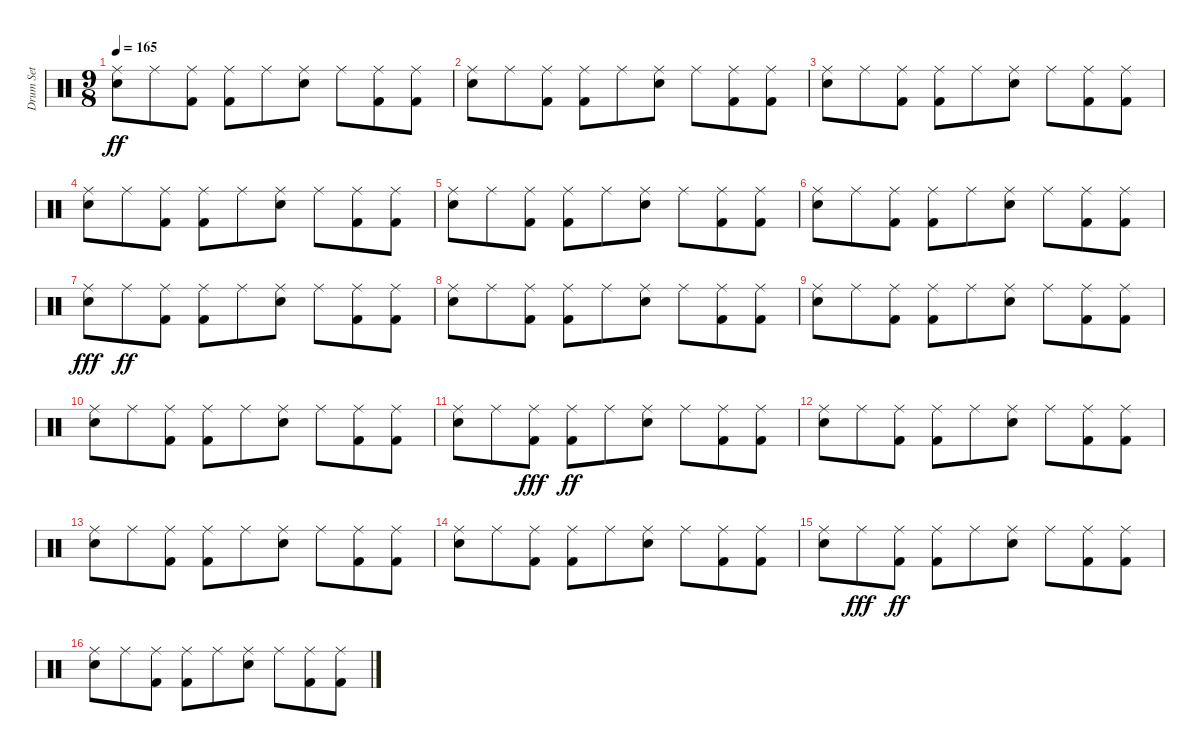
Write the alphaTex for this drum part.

\track ("Drum Set" "Drum Set") {instrument percussion}
\staff {score}
\articulation defaults
\ts (9 8)
\tempo 165
\clef neutral
\ks c
("Snare (hit) 2" "Ride (middle)").8{dy ff} "Ride (middle)".8 ("Kick (hit) 2" "Ride (middle)").8 ("Kick (hit) 2" "Ride (middle)").8 "Ride (middle)".8 ("Snare (hit) 2" "Ride (middle)").8 "Ride (middle)".8 ("Kick (hit) 2" "Ride (middle)").8 ("Kick (hit) 2" "Ride (middle)").8 |
("Snare (hit) 2" "Ride (middle)").8 "Ride (middle)".8 ("Kick (hit) 2" "Ride (middle)").8 ("Kick (hit) 2" "Ride (middle)").8 "Ride (middle)".8 ("Snare (hit) 2" "Ride (middle)").8 "Ride (middle)".8 ("Kick (hit) 2" "Ride (middle)").8 ("Kick (hit) 2" "Ride (middle)").8 |
("Snare (hit) 2" "Ride (middle)").8 "Ride (middle)".8 ("Kick (hit) 2" "Ride (middle)").8 ("Kick (hit) 2" "Ride (middle)").8 "Ride (middle)".8 ("Snare (hit) 2" "Ride (middle)").8 "Ride (middle)".8 ("Kick (hit) 2" "Ride (middle)").8 ("Kick (hit) 2" "Ride (middle)").8 |
("Snare (hit) 2" "Ride (middle)").8 "Ride (middle)".8 ("Kick (hit) 2" "Ride (middle)").8 ("Kick (hit) 2" "Ride (middle)").8 "Ride (middle)".8 ("Snare (hit) 2" "Ride (middle)").8 "Ride (middle)".8 ("Kick (hit) 2" "Ride (middle)").8 ("Kick (hit) 2" "Ride (middle)").8 |
("Snare (hit) 2" "Ride (middle)").8 "Ride (middle)".8 ("Kick (hit) 2" "Ride (middle)").8 ("Kick (hit) 2" "Ride (middle)").8 "Ride (middle)".8 ("Snare (hit) 2" "Ride (middle)").8 "Ride (middle)".8 ("Kick (hit) 2" "Ride (middle)").8 ("Kick (hit) 2" "Ride (middle)").8 |
("Snare (hit) 2" "Ride (middle)").8 "Ride (middle)".8 ("Kick (hit) 2" "Ride (middle)").8 ("Kick (hit) 2" "Ride (middle)").8 "Ride (middle)".8 ("Snare (hit) 2" "Ride (middle)").8 "Ride (middle)".8 ("Kick (hit) 2" "Ride (middle)").8 ("Kick (hit) 2" "Ride (middle)").8 |
("Snare (hit) 2" "Ride (middle)").8{dy fff} "Ride (middle)".8{dy ff} ("Kick (hit) 2" "Ride (middle)").8 ("Kick (hit) 2" "Ride (middle)").8 "Ride (middle)".8 ("Snare (hit) 2" "Ride (middle)").8 "Ride (middle)".8 ("Kick (hit) 2" "Ride (middle)").8 ("Kick (hit) 2" "Ride (middle)").8 |
("Snare (hit) 2" "Ride (middle)").8 "Ride (middle)".8 ("Kick (hit) 2" "Ride (middle)").8 ("Kick (hit) 2" "Ride (middle)").8 "Ride (middle)".8 ("Snare (hit) 2" "Ride (middle)").8 "Ride (middle)".8 ("Kick (hit) 2" "Ride (middle)").8 ("Kick (hit) 2" "Ride (middle)").8 |
("Snare (hit) 2" "Ride (middle)").8 "Ride (middle)".8 ("Kick (hit) 2" "Ride (middle)").8 ("Kick (hit) 2" "Ride (middle)").8 "Ride (middle)".8 ("Snare (hit) 2" "Ride (middle)").8 "Ride (middle)".8 ("Kick (hit) 2" "Ride (middle)").8 ("Kick (hit) 2" "Ride (middle)").8 |
("Snare (hit) 2" "Ride (middle)").8 "Ride (middle)".8 ("Kick (hit) 2" "Ride (middle)").8 ("Kick (hit) 2" "Ride (middle)").8 "Ride (middle)".8 ("Snare (hit) 2" "Ride (middle)").8 "Ride (middle)".8 ("Kick (hit) 2" "Ride (middle)").8 ("Kick (hit) 2" "Ride (middle)").8 |
("Snare (hit) 2" "Ride (middle)").8 "Ride (middle)".8 ("Kick (hit) 2" "Ride (middle)").8{dy fff} ("Kick (hit) 2" "Ride (middle)").8{dy ff} "Ride (middle)".8 ("Snare (hit) 2" "Ride (middle)").8 "Ride (middle)".8 ("Kick (hit) 2" "Ride (middle)").8 ("Kick (hit) 2" "Ride (middle)").8 |
("Snare (hit) 2" "Ride (middle)").8 "Ride (middle)".8 ("Kick (hit) 2" "Ride (middle)").8 ("Kick (hit) 2" "Ride (middle)").8 "Ride (middle)".8 ("Snare (hit) 2" "Ride (middle)").8 "Ride (middle)".8 ("Kick (hit) 2" "Ride (middle)").8 ("Kick (hit) 2" "Ride (middle)").8 |
("Snare (hit) 2" "Ride (middle)").8 "Ride (middle)".8 ("Kick (hit) 2" "Ride (middle)").8 ("Kick (hit) 2" "Ride (middle)").8 "Ride (middle)".8 ("Snare (hit) 2" "Ride (middle)").8 "Ride (middle)".8 ("Kick (hit) 2" "Ride (middle)").8 ("Kick (hit) 2" "Ride (middle)").8 |
("Snare (hit) 2" "Ride (middle)").8 "Ride (middle)".8 ("Kick (hit) 2" "Ride (middle)").8 ("Kick (hit) 2" "Ride (middle)").8 "Ride (middle)".8 ("Snare (hit) 2" "Ride (middle)").8 "Ride (middle)".8 ("Kick (hit) 2" "Ride (middle)").8 ("Kick (hit) 2" "Ride (middle)").8 |
("Snare (hit) 2" "Ride (middle)").8 "Ride (middle)".8{dy fff} ("Kick (hit) 2" "Ride (middle)").8{dy ff} ("Kick (hit) 2" "Ride (middle)").8 "Ride (middle)".8 ("Snare (hit) 2" "Ride (middle)").8 "Ride (middle)".8 ("Kick (hit) 2" "Ride (middle)").8 ("Kick (hit) 2" "Ride (middle)").8 |
("Snare (hit) 2" "Ride (middle)").8 "Ride (middle)".8 ("Kick (hit) 2" "Ride (middle)").8 ("Kick (hit) 2" "Ride (middle)").8 "Ride (middle)".8 ("Snare (hit) 2" "Ride (middle)").8 "Ride (middle)".8 ("Kick (hit) 2" "Ride (middle)").8 ("Kick (hit) 2" "Ride (middle)").8
